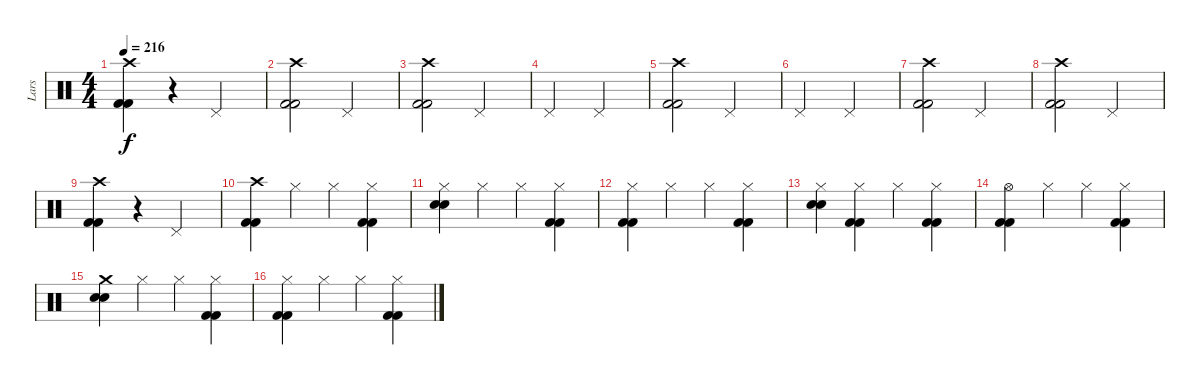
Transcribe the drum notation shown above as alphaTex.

\track ("Lars" "Lars") {instrument percussion}
\staff {score}
\articulation defaults
\ts (4 4)
\tempo 216
\clef neutral
\ks c
("Crash high (hit)" "Kick (hit) 2" "Kick (hit) 2").4{dy f} r.4 "Pedal Hi-Hat (hit)".2 |
("Crash high (hit)" "Kick (hit) 2" "Kick (hit) 2").2 "Pedal Hi-Hat (hit)".2 |
("Crash high (hit)" "Kick (hit) 2" "Kick (hit) 2").2 "Pedal Hi-Hat (hit)".2 |
"Pedal Hi-Hat (hit)".2 "Pedal Hi-Hat (hit)".2 |
("Crash high (hit)" "Kick (hit) 2" "Kick (hit) 2").2 "Pedal Hi-Hat (hit)".2 |
"Pedal Hi-Hat (hit)".2 "Pedal Hi-Hat (hit)".2 |
("Crash high (hit)" "Kick (hit) 2" "Kick (hit) 2").2 "Pedal Hi-Hat (hit)".2 |
("Crash high (hit)" "Kick (hit) 2" "Kick (hit) 2").2 "Pedal Hi-Hat (hit)".2 |
("Crash high (hit)" "Kick (hit) 2" "Kick (hit) 2").4 r.4 "Pedal Hi-Hat (hit)".2 |
("Crash high (hit)" "Kick (hit) 2" "Kick (hit) 2").4 "Hi-Hat (closed)".4 "Hi-Hat (closed)".4 ("Hi-Hat (closed)" "Kick (hit) 2" "Kick (hit) 2").4 |
("Hi-Hat (closed)" "Electric Snare (hit)" "Electric Snare (hit)").4 "Hi-Hat (closed)".4 "Hi-Hat (closed)".4 ("Hi-Hat (closed)" "Kick (hit) 2" "Kick (hit) 2").4 |
("Hi-Hat (closed)" "Kick (hit) 2" "Kick (hit) 2").4 "Hi-Hat (closed)".4 "Hi-Hat (closed)".4 ("Hi-Hat (closed)" "Kick (hit) 2" "Kick (hit) 2").4 |
("Hi-Hat (closed)" "Electric Snare (hit)" "Electric Snare (hit)").4 ("Hi-Hat (closed)" "Kick (hit) 2" "Kick (hit) 2").4 "Hi-Hat (closed)".4 ("Hi-Hat (closed)" "Kick (hit) 2" "Kick (hit) 2").4 |
("Hi-Hat (open)" "Kick (hit) 2" "Kick (hit) 2").4 "Hi-Hat (closed)".4 "Hi-Hat (closed)".4 ("Hi-Hat (closed)" "Kick (hit) 2" "Kick (hit) 2").4 |
("Crash medium (hit)" "Electric Snare (hit)" "Electric Snare (hit)").4 "Hi-Hat (closed)".4 "Hi-Hat (closed)".4 ("Hi-Hat (closed)" "Kick (hit) 2" "Kick (hit) 2").4 |
("Hi-Hat (closed)" "Kick (hit) 2" "Kick (hit) 2").4 "Hi-Hat (closed)".4 "Hi-Hat (closed)".4 ("Hi-Hat (closed)" "Kick (hit) 2" "Kick (hit) 2").4
